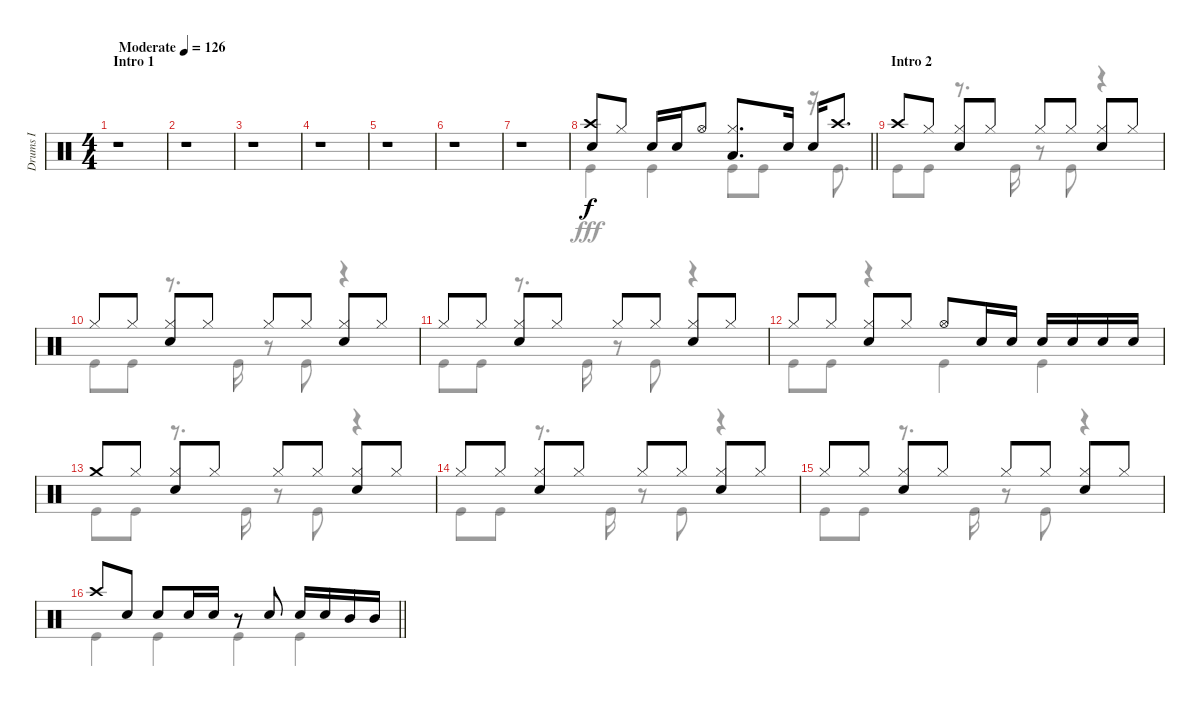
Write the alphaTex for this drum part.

\track ("Drums I" "Drums I") {instrument percussion}
\staff {score}
\articulation defaults
\voice
\ts (4 4)
\section ("" "Intro 1")
\tempo (126 "Moderate")
\clef neutral
\ks c
r.1{dy f} |
r.1 |
r.1 |
r.1 |
r.1 |
r.1 |
r.1 |
\barLineRight lightlight
("Crash high (hit)" "Snare (hit) 2").8 "Hi-Hat (closed)".8 "Snare (hit) 2".16 "Snare (hit) 2".16 "Hi-Hat (open)".8 ("Hi-Hat (closed)" "Low Tom (hit)").8{d} "Snare (hit) 2".16 "Snare (hit) 2".16 "Crash high (hit)".8{d} |
\section ("" "Intro 2")
"Crash high (hit)".8 "Hi-Hat (closed)".8 ("Hi-Hat (closed)" "Snare (hit) 2").8 "Hi-Hat (closed)".8 "Hi-Hat (closed)".8 "Hi-Hat (closed)".8 ("Hi-Hat (closed)" "Snare (hit) 2").8 "Hi-Hat (closed)".8 |
"Hi-Hat (closed)".8 "Hi-Hat (closed)".8 ("Hi-Hat (closed)" "Snare (hit) 2").8 "Hi-Hat (closed)".8 "Hi-Hat (closed)".8 "Hi-Hat (closed)".8 ("Hi-Hat (closed)" "Snare (hit) 2").8 "Hi-Hat (closed)".8 |
"Hi-Hat (closed)".8 "Hi-Hat (closed)".8 ("Hi-Hat (closed)" "Snare (hit) 2").8 "Hi-Hat (closed)".8 "Hi-Hat (closed)".8 "Hi-Hat (closed)".8 ("Hi-Hat (closed)" "Snare (hit) 2").8 "Hi-Hat (closed)".8 |
"Hi-Hat (closed)".8 "Hi-Hat (closed)".8 ("Hi-Hat (closed)" "Snare (hit) 2").8 "Hi-Hat (closed)".8 "Hi-Hat (open)".8 "Snare (hit) 2".16 "Snare (hit) 2".16 "Snare (hit) 2".16 "Snare (hit) 2".16 "Snare (hit) 2".16 "Snare (hit) 2".16 |
"Crash medium (hit)".8 "Hi-Hat (closed)".8 ("Hi-Hat (closed)" "Snare (hit) 2").8 "Hi-Hat (closed)".8 "Hi-Hat (closed)".8 "Hi-Hat (closed)".8 ("Hi-Hat (closed)" "Snare (hit) 2").8 "Hi-Hat (closed)".8 |
"Hi-Hat (closed)".8 "Hi-Hat (closed)".8 ("Hi-Hat (closed)" "Snare (hit) 2").8 "Hi-Hat (closed)".8 "Hi-Hat (closed)".8 "Hi-Hat (closed)".8 ("Hi-Hat (closed)" "Snare (hit) 2").8 "Hi-Hat (closed)".8 |
"Hi-Hat (closed)".8 "Hi-Hat (closed)".8 ("Hi-Hat (closed)" "Snare (hit) 2").8 "Hi-Hat (closed)".8 "Hi-Hat (closed)".8 "Hi-Hat (closed)".8 ("Hi-Hat (closed)" "Snare (hit) 2").8 "Hi-Hat (closed)".8 |
\barLineRight lightlight "Crash high (hit)".8 "Snare (hit) 2".8 "Snare (hit) 2".8 "Snare (hit) 2".16 "Snare (hit) 2".16
r.8 "Snare (hit) 2".8 "Snare (hit) 2".16 "Snare (hit) 2".16 "Mid Tom (hit)".16 "Mid Tom (hit)".16
\voice
\clef neutral
\ottava regular
\simile none
\ks c
r.1{dy fff} |
r.1 |
r.1 |
r.1 |
r.1 |
r.1 |
r.1 |
\barLineRight lightlight "Kick (hit)".4 "Kick (hit)".4 "Kick (hit)".8 "Kick (hit)".8
r.16 "Kick (hit)".8{d} |
"Kick (hit)".8 "Kick (hit)".8 r.8{d} "Kick (hit)".16 r.8 "Kick (hit)".8 r.4 |
"Kick (hit)".8 "Kick (hit)".8 r.8{d} "Kick (hit)".16 r.8 "Kick (hit)".8 r.4 |
"Kick (hit)".8 "Kick (hit)".8 r.8{d} "Kick (hit)".16 r.8 "Kick (hit)".8 r.4 |
"Kick (hit)".8 "Kick (hit)".8 r.4 "Kick (hit)".4 "Kick (hit)".4 |
"Kick (hit)".8 "Kick (hit)".8 r.8{d} "Kick (hit)".16 r.8 "Kick (hit)".8 r.4 |
"Kick (hit)".8 "Kick (hit)".8 r.8{d} "Kick (hit)".16 r.8 "Kick (hit)".8 r.4 |
"Kick (hit)".8 "Kick (hit)".8 r.8{d} "Kick (hit)".16 r.8 "Kick (hit)".8 r.4 |
\barLineRight lightlight "Kick (hit)".4 "Kick (hit)".4 "Kick (hit)".4 "Kick (hit)".4
